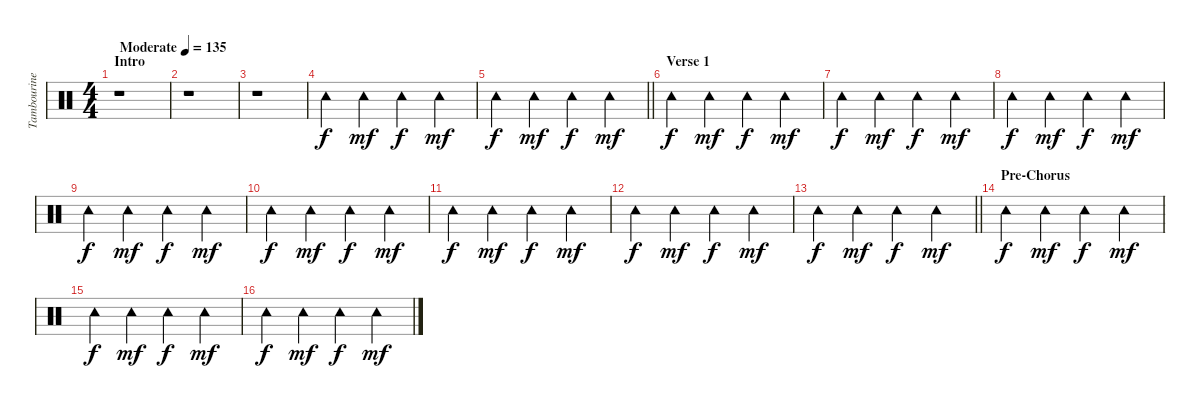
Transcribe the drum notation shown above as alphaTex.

\track ("Tambourine" "Tambourine") {instrument percussion}
\staff {score}
\articulation defaults
\ts (4 4)
\section ("" "Intro")
\tempo (135 "Moderate")
\clef neutral
\ks c
r.1{dy f} |
r.1 |
r.1 |
"Tambourine (hit)".4 "Tambourine (hit)".4{dy mf} "Tambourine (hit)".4{dy f} "Tambourine (hit)".4{dy mf} |
\barLineRight lightlight "Tambourine (hit)".4{dy f} "Tambourine (hit)".4{dy mf} "Tambourine (hit)".4{dy f} "Tambourine (hit)".4{dy mf}
|
\section ("" "Verse 1")
"Tambourine (hit)".4{dy f} "Tambourine (hit)".4{dy mf} "Tambourine (hit)".4{dy f} "Tambourine (hit)".4{dy mf} |
"Tambourine (hit)".4{dy f} "Tambourine (hit)".4{dy mf} "Tambourine (hit)".4{dy f} "Tambourine (hit)".4{dy mf} |
"Tambourine (hit)".4{dy f} "Tambourine (hit)".4{dy mf} "Tambourine (hit)".4{dy f} "Tambourine (hit)".4{dy mf} |
"Tambourine (hit)".4{dy f} "Tambourine (hit)".4{dy mf} "Tambourine (hit)".4{dy f} "Tambourine (hit)".4{dy mf} |
"Tambourine (hit)".4{dy f} "Tambourine (hit)".4{dy mf} "Tambourine (hit)".4{dy f} "Tambourine (hit)".4{dy mf} |
"Tambourine (hit)".4{dy f} "Tambourine (hit)".4{dy mf} "Tambourine (hit)".4{dy f} "Tambourine (hit)".4{dy mf} |
"Tambourine (hit)".4{dy f} "Tambourine (hit)".4{dy mf} "Tambourine (hit)".4{dy f} "Tambourine (hit)".4{dy mf} |
\barLineRight lightlight "Tambourine (hit)".4{dy f} "Tambourine (hit)".4{dy mf} "Tambourine (hit)".4{dy f} "Tambourine (hit)".4{dy mf}
|
\section ("" "Pre-Chorus")
"Tambourine (hit)".4{dy f} "Tambourine (hit)".4{dy mf} "Tambourine (hit)".4{dy f} "Tambourine (hit)".4{dy mf} |
"Tambourine (hit)".4{dy f} "Tambourine (hit)".4{dy mf} "Tambourine (hit)".4{dy f} "Tambourine (hit)".4{dy mf} |
"Tambourine (hit)".4{dy f} "Tambourine (hit)".4{dy mf} "Tambourine (hit)".4{dy f} "Tambourine (hit)".4{dy mf}
